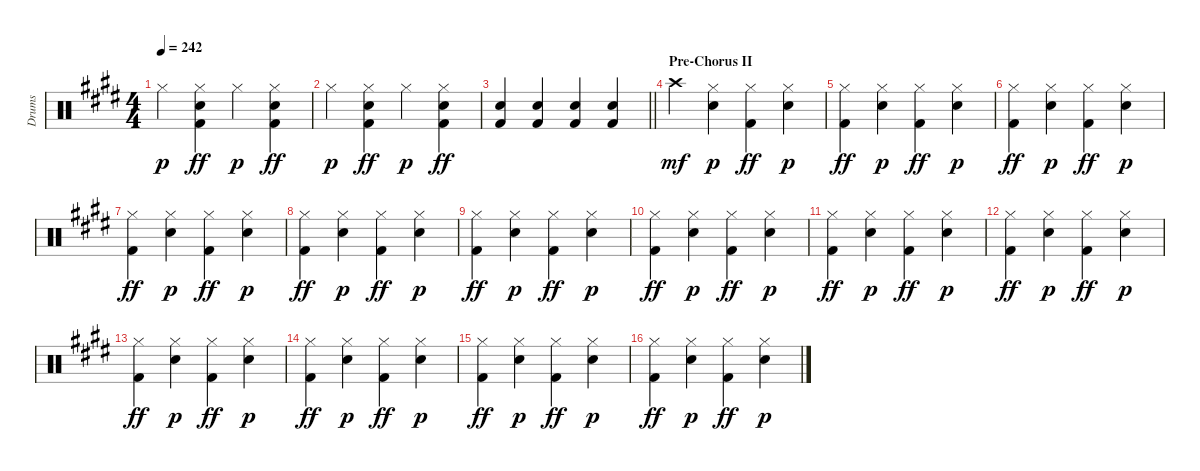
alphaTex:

\track ("Drums" "Drums") {instrument percussion}
\staff {score}
\articulation defaults
\ts (4 4)
\tempo 242
\clef neutral
\ks e "Hi-Hat (closed)".4{dy p}
("Hi-Hat (closed)" "Electric Snare (hit)" "Kick (hit) 2").4{dy ff} "Hi-Hat (closed)".4{dy p} ("Hi-Hat (closed)" "Electric Snare (hit)" "Kick (hit) 2").4{dy ff} |
"Hi-Hat (closed)".4{dy p} ("Hi-Hat (closed)" "Electric Snare (hit)" "Kick (hit) 2").4{dy ff} "Hi-Hat (closed)".4{dy p} ("Hi-Hat (closed)" "Electric Snare (hit)" "Kick (hit) 2").4{dy ff} |
\barLineRight lightlight
("Electric Snare (hit)" "Kick (hit) 2").4 ("Electric Snare (hit)" "Kick (hit) 2").4 ("Electric Snare (hit)" "Kick (hit) 2").4 ("Electric Snare (hit)" "Kick (hit) 2").4 |
\section ("" "Pre-Chorus II")
"Crash high (hit)".4{dy mf} ("Hi-Hat (closed)" "Electric Snare (hit)").4{dy p} ("Hi-Hat (closed)" "Kick (hit) 2").4{dy ff} ("Hi-Hat (closed)" "Electric Snare (hit)").4{dy p} |
("Hi-Hat (closed)" "Kick (hit) 2").4{dy ff} ("Hi-Hat (closed)" "Electric Snare (hit)").4{dy p} ("Hi-Hat (closed)" "Kick (hit) 2").4{dy ff} ("Hi-Hat (closed)" "Electric Snare (hit)").4{dy p} |
("Hi-Hat (closed)" "Kick (hit) 2").4{dy ff} ("Hi-Hat (closed)" "Electric Snare (hit)").4{dy p} ("Hi-Hat (closed)" "Kick (hit) 2").4{dy ff} ("Hi-Hat (closed)" "Electric Snare (hit)").4{dy p} |
("Hi-Hat (closed)" "Kick (hit) 2").4{dy ff} ("Hi-Hat (closed)" "Electric Snare (hit)").4{dy p} ("Hi-Hat (closed)" "Kick (hit) 2").4{dy ff} ("Hi-Hat (closed)" "Electric Snare (hit)").4{dy p} |
("Hi-Hat (closed)" "Kick (hit) 2").4{dy ff} ("Hi-Hat (closed)" "Electric Snare (hit)").4{dy p} ("Hi-Hat (closed)" "Kick (hit) 2").4{dy ff} ("Hi-Hat (closed)" "Electric Snare (hit)").4{dy p} |
("Hi-Hat (closed)" "Kick (hit) 2").4{dy ff} ("Hi-Hat (closed)" "Electric Snare (hit)").4{dy p} ("Hi-Hat (closed)" "Kick (hit) 2").4{dy ff} ("Hi-Hat (closed)" "Electric Snare (hit)").4{dy p} |
("Hi-Hat (closed)" "Kick (hit) 2").4{dy ff} ("Hi-Hat (closed)" "Electric Snare (hit)").4{dy p} ("Hi-Hat (closed)" "Kick (hit) 2").4{dy ff} ("Hi-Hat (closed)" "Electric Snare (hit)").4{dy p} |
("Hi-Hat (closed)" "Kick (hit) 2").4{dy ff} ("Hi-Hat (closed)" "Electric Snare (hit)").4{dy p} ("Hi-Hat (closed)" "Kick (hit) 2").4{dy ff} ("Hi-Hat (closed)" "Electric Snare (hit)").4{dy p} |
("Hi-Hat (closed)" "Kick (hit) 2").4{dy ff} ("Hi-Hat (closed)" "Electric Snare (hit)").4{dy p} ("Hi-Hat (closed)" "Kick (hit) 2").4{dy ff} ("Hi-Hat (closed)" "Electric Snare (hit)").4{dy p} |
("Hi-Hat (closed)" "Kick (hit) 2").4{dy ff} ("Hi-Hat (closed)" "Electric Snare (hit)").4{dy p} ("Hi-Hat (closed)" "Kick (hit) 2").4{dy ff} ("Hi-Hat (closed)" "Electric Snare (hit)").4{dy p} |
("Hi-Hat (closed)" "Kick (hit) 2").4{dy ff} ("Hi-Hat (closed)" "Electric Snare (hit)").4{dy p} ("Hi-Hat (closed)" "Kick (hit) 2").4{dy ff} ("Hi-Hat (closed)" "Electric Snare (hit)").4{dy p} |
("Hi-Hat (closed)" "Kick (hit) 2").4{dy ff} ("Hi-Hat (closed)" "Electric Snare (hit)").4{dy p} ("Hi-Hat (closed)" "Kick (hit) 2").4{dy ff} ("Hi-Hat (closed)" "Electric Snare (hit)").4{dy p} |
("Hi-Hat (closed)" "Kick (hit) 2").4{dy ff} ("Hi-Hat (closed)" "Electric Snare (hit)").4{dy p} ("Hi-Hat (closed)" "Kick (hit) 2").4{dy ff} ("Hi-Hat (closed)" "Electric Snare (hit)").4{dy p}
